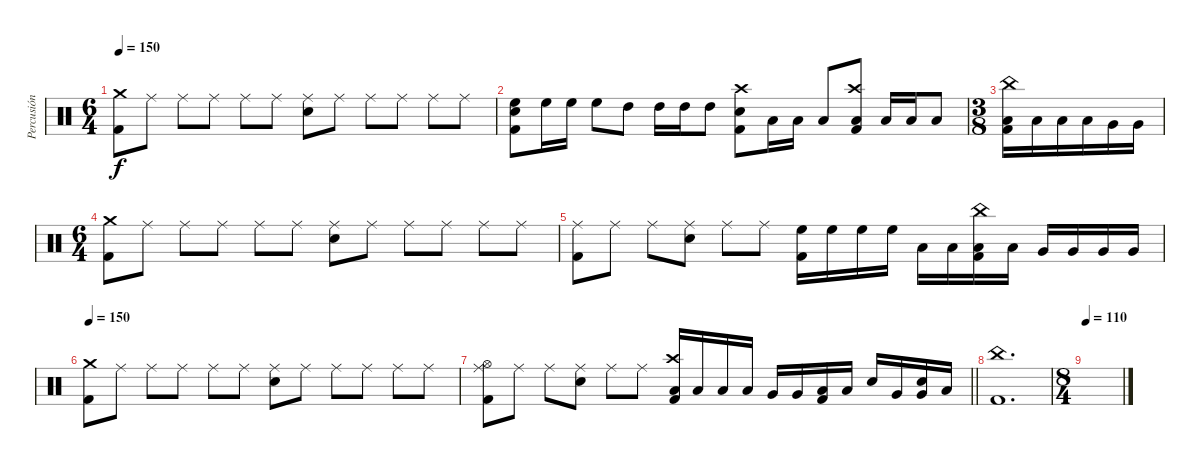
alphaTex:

\track ("Percusión" "Percusión") {instrument percussion}
\staff {score}
\articulation defaults
\ts (6 4)
\tempo 150
\clef neutral
\ks c
("Crash medium (hit)" "Kick (hit) 2").8{dy f} "Ride (middle)".8 "Ride (middle)".8 "Ride (middle)".8 "Ride (middle)".8 "Ride (middle)".8 ("Ride (middle)" "Electric Snare (hit)").8 "Ride (middle)".8 "Ride (middle)".8 "Ride (middle)".8 "Ride (middle)".8 "Ride (middle)".8 |
("High Floor Tom (hit)" "Electric Snare (hit)" "Kick (hit) 2").8 "High Floor Tom (hit)".16 "High Floor Tom (hit)".16 "High Floor Tom (hit)".8 "High Tom (hit)".8 "High Tom (hit)".16 "High Tom (hit)".16 "High Tom (hit)".8 ("Crash high (hit)" "Electric Snare (hit)" "Kick (hit) 2").8 "Low Tom (hit)".16 "Low Tom (hit)".16 "Low Tom (hit)".8 ("Crash high (hit)" "Low Floor Tom (hit)" "Kick (hit) 2").8 "Low Floor Tom (hit)".16 "Low Floor Tom (hit)".16 "Low Floor Tom (hit)".8 |
\ts (3 8)
("China (hit)" "Low Tom (hit)" "Kick (hit) 2").16 "Low Tom (hit)".16 "Low Tom (hit)".16 "Low Tom (hit)".16 "Very Low Tom (hit)".16 "Very Low Tom (hit)".16 |
\ts (6 4)
("Crash medium (hit)" "Kick (hit) 2").8 "Ride (middle)".8 "Ride (middle)".8 "Ride (middle)".8 "Ride (middle)".8 "Ride (middle)".8 ("Ride (middle)" "Electric Snare (hit)").8 "Ride (middle)".8 "Ride (middle)".8 "Ride (middle)".8 "Ride (middle)".8 "Ride (middle)".8 |
("Ride (middle)" "Kick (hit) 2").8 "Ride (middle)".8 "Ride (middle)".8 ("Ride (middle)" "Electric Snare (hit)").8 "Ride (middle)".8 "Ride (middle)".8 ("High Floor Tom (hit)" "Kick (hit) 2").16 "High Floor Tom (hit)".16 "High Floor Tom (hit)".16 "High Floor Tom (hit)".16 "Low Tom (hit)".16 "Low Tom (hit)".16 ("China (hit)" "Low Tom (hit)" "Kick (hit) 2").16 "Low Tom (hit)".16 "Very Low Tom (hit)".16 "Very Low Tom (hit)".16 "Very Low Tom (hit)".16 "Very Low Tom (hit)".16 |
\tempo 150
("Crash medium (hit)" "Kick (hit) 2").8 "Ride (middle)".8 "Ride (middle)".8 "Ride (middle)".8 "Ride (middle)".8 "Ride (middle)".8 ("Ride (middle)" "Electric Snare (hit)").8 "Ride (middle)".8 "Ride (middle)".8 "Ride (middle)".8 "Ride (middle)".8 "Ride (middle)".8 |
\barLineRight lightlight
("Ride (middle)" "Hi-Hat (open)" "Kick (hit) 2").8 "Ride (middle)".8 "Ride (middle)".8 ("Ride (middle)" "Electric Snare (hit)").8 "Ride (middle)".8 "Ride (middle)".8 ("Crash high (hit)" "Low Tom (hit)" "Kick (hit) 2").16 "Low Tom (hit)".16 "Low Tom (hit)".16 "Low Tom (hit)".16 "Very Low Tom (hit)".16 "Very Low Tom (hit)".16 ("Low Floor Tom (hit)" "Kick (hit) 2").16 "Low Floor Tom (hit)".16 "Electric Snare (hit)".16 "Very Low Tom (hit)".16 ("Very Low Tom (hit)" "Electric Snare (hit)").16 "Low Floor Tom (hit)".16 |
("China (hit)" "Kick (hit) 2").1{d} |
\ts (8 4)
\tempo 110
